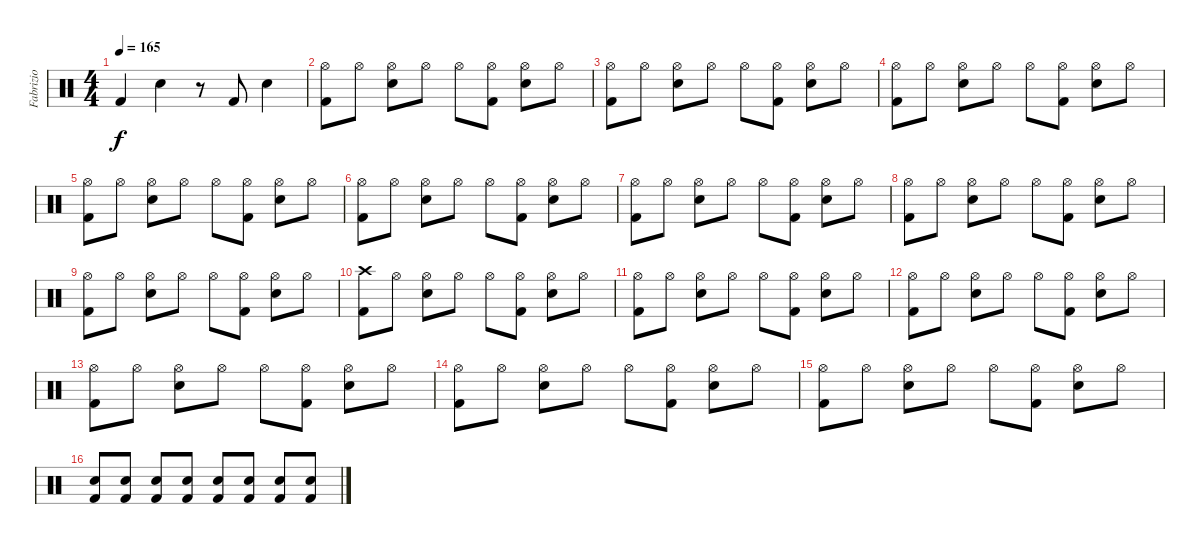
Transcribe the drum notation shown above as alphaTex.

\track ("Fabrizio" "Fabrizio") {instrument percussion}
\staff {score}
\articulation defaults
\ts (4 4)
\tempo 165
\clef neutral
\ks c "Kick (hit) 2".4{dy f} "Snare (hit) 2".4
r.8 "Kick (hit) 2".8 "Snare (hit) 2".4 |
("Kick (hit) 2" "Hi-Hat (open)").8 "Hi-Hat (open)".8 ("Snare (hit) 2" "Hi-Hat (open)").8 "Hi-Hat (open)".8 "Hi-Hat (open)".8 ("Kick (hit) 2" "Hi-Hat (open)").8 ("Snare (hit) 2" "Hi-Hat (open)").8 "Hi-Hat (open)".8 |
("Kick (hit) 2" "Hi-Hat (open)").8 "Hi-Hat (open)".8 ("Snare (hit) 2" "Hi-Hat (open)").8 "Hi-Hat (open)".8 "Hi-Hat (open)".8 ("Kick (hit) 2" "Hi-Hat (open)").8 ("Snare (hit) 2" "Hi-Hat (open)").8 "Hi-Hat (open)".8 |
("Kick (hit) 2" "Hi-Hat (open)").8 "Hi-Hat (open)".8 ("Snare (hit) 2" "Hi-Hat (open)").8 "Hi-Hat (open)".8 "Hi-Hat (open)".8 ("Kick (hit) 2" "Hi-Hat (open)").8 ("Snare (hit) 2" "Hi-Hat (open)").8 "Hi-Hat (open)".8 |
("Kick (hit) 2" "Hi-Hat (open)").8 "Hi-Hat (open)".8 ("Snare (hit) 2" "Hi-Hat (open)").8 "Hi-Hat (open)".8 "Hi-Hat (open)".8 ("Kick (hit) 2" "Hi-Hat (open)").8 ("Snare (hit) 2" "Hi-Hat (open)").8 "Hi-Hat (open)".8 |
("Kick (hit) 2" "Hi-Hat (open)").8 "Hi-Hat (open)".8 ("Snare (hit) 2" "Hi-Hat (open)").8 "Hi-Hat (open)".8 "Hi-Hat (open)".8 ("Kick (hit) 2" "Hi-Hat (open)").8 ("Snare (hit) 2" "Hi-Hat (open)").8 "Hi-Hat (open)".8 |
("Kick (hit) 2" "Hi-Hat (open)").8 "Hi-Hat (open)".8 ("Snare (hit) 2" "Hi-Hat (open)").8 "Hi-Hat (open)".8 "Hi-Hat (open)".8 ("Kick (hit) 2" "Hi-Hat (open)").8 ("Snare (hit) 2" "Hi-Hat (open)").8 "Hi-Hat (open)".8 |
("Kick (hit) 2" "Hi-Hat (open)").8 "Hi-Hat (open)".8 ("Snare (hit) 2" "Hi-Hat (open)").8 "Hi-Hat (open)".8 "Hi-Hat (open)".8 ("Kick (hit) 2" "Hi-Hat (open)").8 ("Snare (hit) 2" "Hi-Hat (open)").8 "Hi-Hat (open)".8 |
("Kick (hit) 2" "Hi-Hat (open)").8 "Hi-Hat (open)".8 ("Snare (hit) 2" "Hi-Hat (open)").8 "Hi-Hat (open)".8 "Hi-Hat (open)".8 ("Kick (hit) 2" "Hi-Hat (open)").8 ("Snare (hit) 2" "Hi-Hat (open)").8 "Hi-Hat (open)".8 |
("Kick (hit) 2" "Crash high (hit)").8 "Hi-Hat (open)".8 ("Snare (hit) 2" "Hi-Hat (open)").8 "Hi-Hat (open)".8 "Hi-Hat (open)".8 ("Kick (hit) 2" "Hi-Hat (open)").8 ("Snare (hit) 2" "Hi-Hat (open)").8 "Hi-Hat (open)".8 |
("Kick (hit) 2" "Hi-Hat (open)").8 "Hi-Hat (open)".8 ("Snare (hit) 2" "Hi-Hat (open)").8 "Hi-Hat (open)".8 "Hi-Hat (open)".8 ("Kick (hit) 2" "Hi-Hat (open)").8 ("Snare (hit) 2" "Hi-Hat (open)").8 "Hi-Hat (open)".8 |
("Kick (hit) 2" "Hi-Hat (open)").8 "Hi-Hat (open)".8 ("Snare (hit) 2" "Hi-Hat (open)").8 "Hi-Hat (open)".8 "Hi-Hat (open)".8 ("Kick (hit) 2" "Hi-Hat (open)").8 ("Snare (hit) 2" "Hi-Hat (open)").8 "Hi-Hat (open)".8 |
("Kick (hit) 2" "Hi-Hat (open)").8 "Hi-Hat (open)".8 ("Snare (hit) 2" "Hi-Hat (open)").8 "Hi-Hat (open)".8 "Hi-Hat (open)".8 ("Kick (hit) 2" "Hi-Hat (open)").8 ("Snare (hit) 2" "Hi-Hat (open)").8 "Hi-Hat (open)".8 |
("Kick (hit) 2" "Hi-Hat (open)").8 "Hi-Hat (open)".8 ("Snare (hit) 2" "Hi-Hat (open)").8 "Hi-Hat (open)".8 "Hi-Hat (open)".8 ("Kick (hit) 2" "Hi-Hat (open)").8 ("Snare (hit) 2" "Hi-Hat (open)").8 "Hi-Hat (open)".8 |
("Kick (hit) 2" "Hi-Hat (open)").8 "Hi-Hat (open)".8 ("Snare (hit) 2" "Hi-Hat (open)").8 "Hi-Hat (open)".8 "Hi-Hat (open)".8 ("Kick (hit) 2" "Hi-Hat (open)").8 ("Snare (hit) 2" "Hi-Hat (open)").8 "Hi-Hat (open)".8 |
("Snare (hit) 2" "Kick (hit) 2").8 ("Snare (hit) 2" "Kick (hit) 2").8 ("Snare (hit) 2" "Kick (hit) 2").8 ("Snare (hit) 2" "Kick (hit) 2").8 ("Snare (hit) 2" "Kick (hit) 2").8 ("Snare (hit) 2" "Kick (hit) 2").8 ("Snare (hit) 2" "Kick (hit) 2").8 ("Snare (hit) 2" "Kick (hit) 2").8
